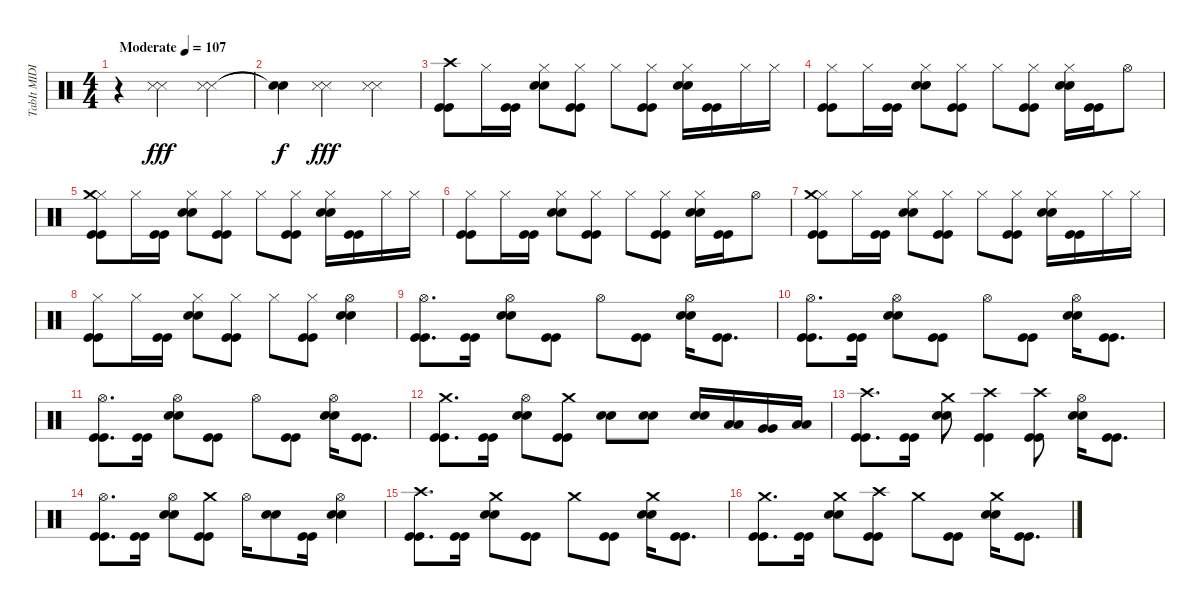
\track ("TabIt MIDI - Track 5" "TabIt MIDI") {instrument percussion}
\staff {score}
\articulation defaults
\ts (4 4)
\tempo (107 "Moderate")
\clef neutral
\ks c
r.4{dy fff} ("Snare (side stick) 3" "Snare (side stick) 3").2 ("Snare (side stick) 3" "Snare (side stick) 3").4 |
("Snare (hit)"{t} "Snare (hit)"{t}).4{dy f} ("Snare (side stick) 3" "Snare (side stick) 3").2{dy fff} ("Snare (side stick) 3" "Snare (side stick) 3").4 |
("Kick (hit)" "Kick (hit)" "Crash high (hit)").8{balance 8} "Hi-Hat (closed)".16 ("Kick (hit)" "Kick (hit)").16 ("Snare (hit) 2" "Snare (hit) 2" "Hi-Hat (closed)").8 ("Kick (hit)" "Kick (hit)" "Hi-Hat (closed)").8 "Hi-Hat (closed)".8 ("Kick (hit)" "Kick (hit)" "Hi-Hat (closed)").8 ("Snare (hit) 2" "Snare (hit) 2" "Hi-Hat (closed)").16 ("Kick (hit)" "Kick (hit)").16 "Hi-Hat (closed)".16 "Hi-Hat (closed)".16 |
("Kick (hit)" "Kick (hit)" "Hi-Hat (closed)").8 "Hi-Hat (closed)".16 ("Kick (hit)" "Kick (hit)").16 ("Snare (hit) 2" "Snare (hit) 2" "Hi-Hat (closed)").8 ("Kick (hit)" "Kick (hit)" "Hi-Hat (closed)").8 "Hi-Hat (closed)".8 ("Kick (hit)" "Kick (hit)" "Hi-Hat (closed)").8 ("Snare (hit) 2" "Snare (hit) 2" "Hi-Hat (closed)").16 ("Kick (hit)" "Kick (hit)").16 "Hi-Hat (open)".8 |
("Kick (hit)" "Kick (hit)" "Hi-Hat (closed)" "Crash medium (hit)").8 "Hi-Hat (closed)".16 ("Kick (hit)" "Kick (hit)").16 ("Snare (hit) 2" "Snare (hit) 2" "Hi-Hat (closed)").8 ("Kick (hit)" "Kick (hit)" "Hi-Hat (closed)").8 "Hi-Hat (closed)".8 ("Kick (hit)" "Kick (hit)" "Hi-Hat (closed)").8 ("Snare (hit) 2" "Snare (hit) 2" "Hi-Hat (closed)").16 ("Kick (hit)" "Kick (hit)").16 "Hi-Hat (closed)".16 "Hi-Hat (closed)".16 |
("Kick (hit)" "Kick (hit)" "Hi-Hat (closed)").8 "Hi-Hat (closed)".16 ("Kick (hit)" "Kick (hit)").16 ("Snare (hit) 2" "Snare (hit) 2" "Hi-Hat (closed)").8 ("Kick (hit)" "Kick (hit)" "Hi-Hat (closed)").8 "Hi-Hat (closed)".8 ("Kick (hit)" "Kick (hit)" "Hi-Hat (closed)").8 ("Snare (hit) 2" "Snare (hit) 2" "Hi-Hat (closed)").16 ("Kick (hit)" "Kick (hit)").16 "Hi-Hat (open)".8 |
("Kick (hit)" "Kick (hit)" "Hi-Hat (closed)" "Crash medium (hit)").8 "Hi-Hat (closed)".16 ("Kick (hit)" "Kick (hit)").16 ("Snare (hit) 2" "Snare (hit) 2" "Hi-Hat (closed)").8 ("Kick (hit)" "Kick (hit)" "Hi-Hat (closed)").8 "Hi-Hat (closed)".8 ("Kick (hit)" "Kick (hit)" "Hi-Hat (closed)").8 ("Snare (hit) 2" "Snare (hit) 2" "Hi-Hat (closed)").16 ("Kick (hit)" "Kick (hit)").16 "Hi-Hat (closed)".16 "Hi-Hat (closed)".16 |
("Kick (hit)" "Kick (hit)" "Hi-Hat (closed)").8 "Hi-Hat (closed)".16 ("Kick (hit)" "Kick (hit)").16 ("Snare (hit) 2" "Snare (hit) 2" "Hi-Hat (closed)").8 ("Kick (hit)" "Kick (hit)" "Hi-Hat (closed)").8 "Hi-Hat (closed)".8 ("Kick (hit)" "Kick (hit)" "Hi-Hat (closed)").8 ("Snare (hit) 2" "Snare (hit) 2" "Hi-Hat (open)").4 |
("Kick (hit)" "Kick (hit)" "Hi-Hat (open)").8{d} ("Kick (hit)" "Kick (hit)").16 ("Snare (hit) 2" "Snare (hit) 2" "Hi-Hat (open)").8 ("Kick (hit)" "Kick (hit)").8 "Hi-Hat (open)".8 ("Kick (hit)" "Kick (hit)").8 ("Snare (hit) 2" "Snare (hit) 2" "Hi-Hat (open)").16 ("Kick (hit)" "Kick (hit)").8{d} |
("Kick (hit)" "Kick (hit)" "Hi-Hat (open)").8{d} ("Kick (hit)" "Kick (hit)").16 ("Snare (hit) 2" "Snare (hit) 2" "Hi-Hat (open)").8 ("Kick (hit)" "Kick (hit)").8 "Hi-Hat (open)".8 ("Kick (hit)" "Kick (hit)").8 ("Snare (hit) 2" "Snare (hit) 2" "Hi-Hat (open)").16 ("Kick (hit)" "Kick (hit)").8{d} |
("Kick (hit)" "Kick (hit)" "Hi-Hat (open)").8{d} ("Kick (hit)" "Kick (hit)").16 ("Snare (hit) 2" "Snare (hit) 2" "Hi-Hat (open)").8 ("Kick (hit)" "Kick (hit)").8 "Hi-Hat (open)".8 ("Kick (hit)" "Kick (hit)").8 ("Snare (hit) 2" "Snare (hit) 2" "Hi-Hat (open)").16 ("Kick (hit)" "Kick (hit)").8{d} |
("Kick (hit)" "Kick (hit)" "Crash medium (hit)").8{d} ("Kick (hit)" "Kick (hit)").16 ("Snare (hit) 2" "Snare (hit) 2" "Hi-Hat (open)").8 ("Kick (hit)" "Kick (hit)" "Crash medium (hit)").8 ("Snare (hit) 2" "Snare (hit) 2").8 ("Snare (hit) 2" "Snare (hit) 2").8 ("Snare (hit) 2" "Snare (hit) 2").16 ("Low Tom (hit)" "Low Tom (hit)").16 ("Very Low Tom (hit)" "Very Low Tom (hit)").16 ("Low Floor Tom (hit)" "Low Floor Tom (hit)").16 |
("Kick (hit)" "Kick (hit)" "Crash high (hit)").8{d} ("Kick (hit)" "Kick (hit)").16 ("Snare (hit) 2" "Snare (hit) 2" "Crash medium (hit)").8 ("Kick (hit)" "Kick (hit)" "Crash high (hit)").4 ("Kick (hit)" "Kick (hit)" "Crash high (hit)").8 ("Snare (hit) 2" "Snare (hit) 2" "Hi-Hat (open)").16 ("Kick (hit)" "Kick (hit)").8{d} |
("Kick (hit)" "Kick (hit)" "Hi-Hat (open)").8{d} ("Kick (hit)" "Kick (hit)").16 ("Snare (hit) 2" "Snare (hit) 2" "Hi-Hat (open)").8 ("Kick (hit)" "Kick (hit)" "Crash medium (hit)").8 "Hi-Hat (open)".16 ("Snare (hit) 2" "Snare (hit) 2").8 ("Kick (hit)" "Kick (hit)").16 ("Snare (hit) 2" "Snare (hit) 2" "Hi-Hat (open)").4 |
("Kick (hit)" "Kick (hit)" "Crash high (hit)").8{d} ("Kick (hit)" "Kick (hit)").16 ("Snare (hit) 2" "Snare (hit) 2" "Crash medium (hit)").8 ("Kick (hit)" "Kick (hit)").8 "Crash medium (hit)".8 ("Kick (hit)" "Kick (hit)").8 ("Snare (hit) 2" "Snare (hit) 2" "Crash medium (hit)").16 ("Kick (hit)" "Kick (hit)").8{d} |
("Kick (hit)" "Kick (hit)" "Crash medium (hit)").8{d} ("Kick (hit)" "Kick (hit)").16 ("Snare (hit) 2" "Snare (hit) 2" "Crash medium (hit)").8 ("Kick (hit)" "Kick (hit)" "Crash high (hit)").8 "Crash medium (hit)".8 ("Kick (hit)" "Kick (hit)").8 ("Snare (hit) 2" "Snare (hit) 2" "Crash medium (hit)").16 ("Kick (hit)" "Kick (hit)").8{d}
